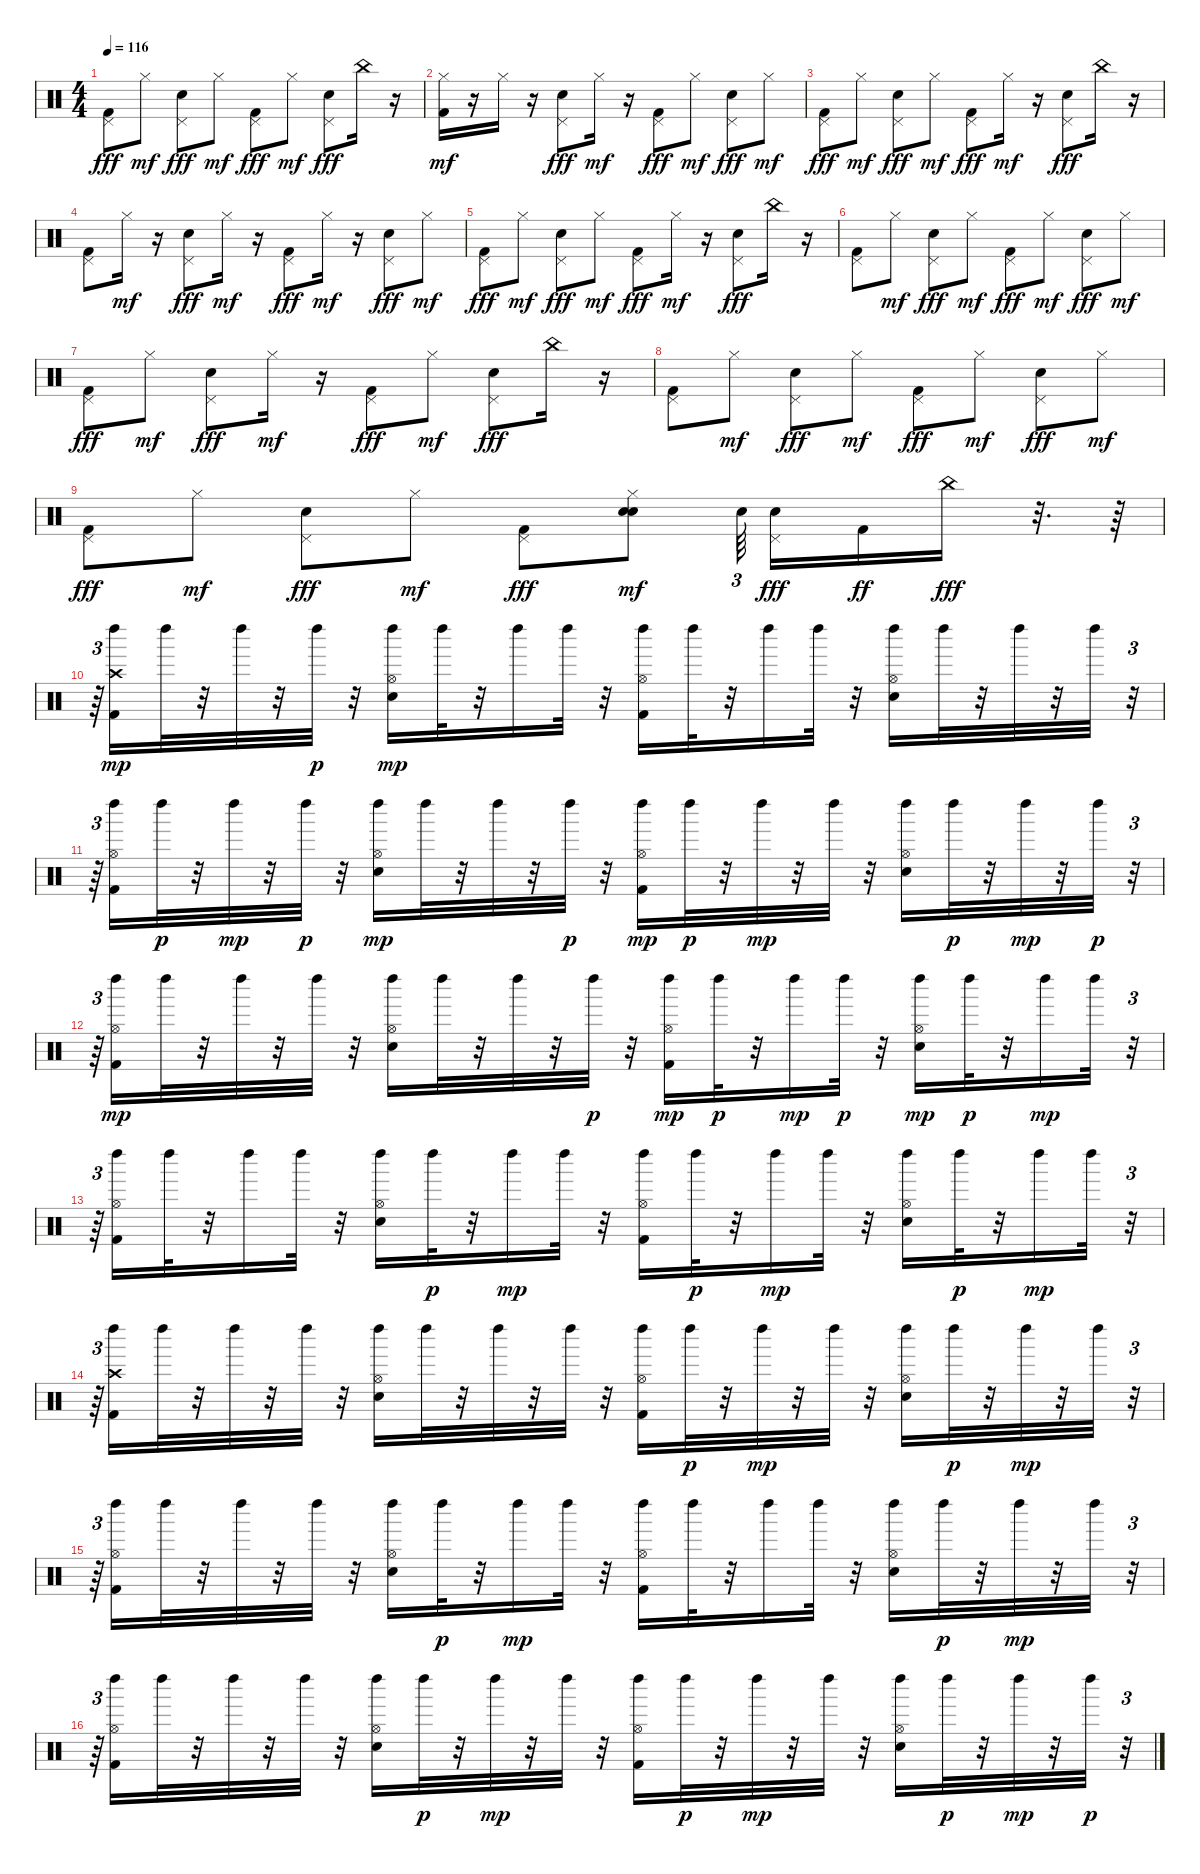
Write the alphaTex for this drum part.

\track "" {instrument percussion}
\staff {score}
\articulation defaults
\ts (4 4)
\tempo 116
\clef neutral
\ks c
("Kick (hit) 2" "Pedal Hi-Hat (hit)").8{dy fff} "Hi-Hat (closed)".8{dy mf} ("Snare (hit) 2" "Pedal Hi-Hat (hit)").8{dy fff} "Hi-Hat (closed)".8{dy mf} ("Kick (hit) 2" "Pedal Hi-Hat (hit)").8{dy fff} "Hi-Hat (closed)".8{dy mf} ("Snare (hit) 2" "Pedal Hi-Hat (hit)").8{dy fff} "China (choke)".16 r.16 |
("Kick (hit) 2" "Hi-Hat (closed)").16{dy mf} r.16 "Hi-Hat (closed)".16 r.16 ("Snare (hit) 2" "Pedal Hi-Hat (hit)").8{dy fff} "Hi-Hat (closed)".16{dy mf} r.16 ("Kick (hit) 2" "Pedal Hi-Hat (hit)").8{dy fff} "Hi-Hat (closed)".8{dy mf} ("Snare (hit) 2" "Pedal Hi-Hat (hit)").8{dy fff} "Hi-Hat (closed)".8{dy mf} |
("Kick (hit) 2" "Pedal Hi-Hat (hit)").8{dy fff} "Hi-Hat (closed)".8{dy mf} ("Snare (hit) 2" "Pedal Hi-Hat (hit)").8{dy fff} "Hi-Hat (closed)".8{dy mf} ("Kick (hit) 2" "Pedal Hi-Hat (hit)").8{dy fff} "Hi-Hat (closed)".16{dy mf} r.16 ("Snare (hit) 2" "Pedal Hi-Hat (hit)").8{dy fff} "China (choke)".16 r.16 |
("Kick (hit) 2" "Pedal Hi-Hat (hit)").8 "Hi-Hat (closed)".16{dy mf} r.16 ("Snare (hit) 2" "Pedal Hi-Hat (hit)").8{dy fff} "Hi-Hat (closed)".16{dy mf} r.16 ("Kick (hit) 2" "Pedal Hi-Hat (hit)").8{dy fff} "Hi-Hat (closed)".16{dy mf} r.16 ("Snare (hit) 2" "Pedal Hi-Hat (hit)").8{dy fff} "Hi-Hat (closed)".8{dy mf} |
("Kick (hit) 2" "Pedal Hi-Hat (hit)").8{dy fff} "Hi-Hat (closed)".8{dy mf} ("Snare (hit) 2" "Pedal Hi-Hat (hit)").8{dy fff} "Hi-Hat (closed)".8{dy mf} ("Kick (hit) 2" "Pedal Hi-Hat (hit)").8{dy fff} "Hi-Hat (closed)".16{dy mf} r.16 ("Snare (hit) 2" "Pedal Hi-Hat (hit)").8{dy fff} "China (choke)".16 r.16 |
("Kick (hit) 2" "Pedal Hi-Hat (hit)").8 "Hi-Hat (closed)".8{dy mf} ("Snare (hit) 2" "Pedal Hi-Hat (hit)").8{dy fff} "Hi-Hat (closed)".8{dy mf} ("Kick (hit) 2" "Pedal Hi-Hat (hit)").8{dy fff} "Hi-Hat (closed)".8{dy mf} ("Snare (hit) 2" "Pedal Hi-Hat (hit)").8{dy fff} "Hi-Hat (closed)".8{dy mf} |
("Kick (hit) 2" "Pedal Hi-Hat (hit)").8{dy fff} "Hi-Hat (closed)".8{dy mf} ("Snare (hit) 2" "Pedal Hi-Hat (hit)").8{dy fff} "Hi-Hat (closed)".16{dy mf} r.16 ("Kick (hit) 2" "Pedal Hi-Hat (hit)").8{dy fff} "Hi-Hat (closed)".8{dy mf} ("Snare (hit) 2" "Pedal Hi-Hat (hit)").8{dy fff} "China (choke)".16 r.16 |
("Kick (hit) 2" "Pedal Hi-Hat (hit)").8 "Hi-Hat (closed)".8{dy mf} ("Snare (hit) 2" "Pedal Hi-Hat (hit)").8{dy fff} "Hi-Hat (closed)".8{dy mf} ("Kick (hit) 2" "Pedal Hi-Hat (hit)").8{dy fff} "Hi-Hat (closed)".8{dy mf} ("Snare (hit) 2" "Pedal Hi-Hat (hit)").8{dy fff} "Hi-Hat (closed)".8{dy mf} |
("Kick (hit) 2" "Pedal Hi-Hat (hit)").8{dy fff} "Hi-Hat (closed)".8{dy mf} ("Snare (hit) 2" "Pedal Hi-Hat (hit)").8{dy fff} "Hi-Hat (closed)".8{dy mf} ("Kick (hit) 2" "Pedal Hi-Hat (hit)").8{dy fff} ("Snare (hit) 2" "Snare (hit) 2" "Hi-Hat (closed)").8{dy mf} "Snare (hit) 2".64{tu (3 2) beam splitsecondary} ("Snare (hit) 2" "Pedal Hi-Hat (hit)").16{dy fff} "Kick (hit) 2".16{dy ff} "China (choke)".16{dy fff} r.32{d} r.64 |
r.64{tu (3 2)} ("Kick (hit) 2" "Crash high (hit)" "Left Maraca (hit)").16{dy mp} "Left Maraca (hit)".32 r.32 "Left Maraca (hit)".32 r.32 "Left Maraca (hit)".32{dy p} r.32 ("Snare (hit) 2" "Hi-Hat (open)" "Left Maraca (hit)").16{dy mp} "Left Maraca (hit)".32 r.32 "Left Maraca (hit)".16 "Left Maraca (hit)".32 r.32 ("Kick (hit) 2" "Hi-Hat (open)" "Left Maraca (hit)").16 "Left Maraca (hit)".32 r.32 "Left Maraca (hit)".16 "Left Maraca (hit)".32 r.32 ("Snare (hit) 2" "Hi-Hat (open)" "Left Maraca (hit)").16 "Left Maraca (hit)".32 r.32 "Left Maraca (hit)".32 r.32 "Left Maraca (hit)".32 r.32{tu (3 2)} |
r.64{tu (3 2)} ("Kick (hit) 2" "Hi-Hat (open)" "Left Maraca (hit)").16 "Left Maraca (hit)".32{dy p} r.32 "Left Maraca (hit)".32{dy mp} r.32 "Left Maraca (hit)".32{dy p} r.32 ("Snare (hit) 2" "Hi-Hat (open)" "Left Maraca (hit)").16{dy mp} "Left Maraca (hit)".32 r.32 "Left Maraca (hit)".32 r.32 "Left Maraca (hit)".32{dy p} r.32 ("Kick (hit) 2" "Hi-Hat (open)" "Left Maraca (hit)").16{dy mp} "Left Maraca (hit)".32{dy p} r.32 "Left Maraca (hit)".32{dy mp} r.32 "Left Maraca (hit)".32 r.32 ("Snare (hit) 2" "Hi-Hat (open)" "Left Maraca (hit)").16 "Left Maraca (hit)".32{dy p} r.32 "Left Maraca (hit)".32{dy mp} r.32 "Left Maraca (hit)".32{dy p} r.32{tu (3 2)} |
r.64{tu (3 2)} ("Kick (hit) 2" "Hi-Hat (open)" "Left Maraca (hit)").16{dy mp} "Left Maraca (hit)".32 r.32 "Left Maraca (hit)".32 r.32 "Left Maraca (hit)".32 r.32 ("Snare (hit) 2" "Hi-Hat (open)" "Left Maraca (hit)").16 "Left Maraca (hit)".32 r.32 "Left Maraca (hit)".32 r.32 "Left Maraca (hit)".32{dy p} r.32 ("Kick (hit) 2" "Hi-Hat (open)" "Left Maraca (hit)").16{dy mp} "Left Maraca (hit)".32{dy p} r.32 "Left Maraca (hit)".16{dy mp} "Left Maraca (hit)".32{dy p} r.32 ("Snare (hit) 2" "Hi-Hat (open)" "Left Maraca (hit)").16{dy mp} "Left Maraca (hit)".32{dy p} r.32 "Left Maraca (hit)".16{dy mp} "Left Maraca (hit)".32 r.32{tu (3 2)} |
r.64{tu (3 2)} ("Kick (hit) 2" "Hi-Hat (open)" "Left Maraca (hit)").16 "Left Maraca (hit)".32 r.32 "Left Maraca (hit)".16 "Left Maraca (hit)".32 r.32 ("Snare (hit) 2" "Hi-Hat (open)" "Left Maraca (hit)").16 "Left Maraca (hit)".32{dy p} r.32 "Left Maraca (hit)".16{dy mp} "Left Maraca (hit)".32 r.32 ("Kick (hit) 2" "Hi-Hat (open)" "Left Maraca (hit)").16 "Left Maraca (hit)".32{dy p} r.32 "Left Maraca (hit)".16{dy mp} "Left Maraca (hit)".32 r.32 ("Snare (hit) 2" "Hi-Hat (open)" "Left Maraca (hit)").16 "Left Maraca (hit)".32{dy p} r.32 "Left Maraca (hit)".16{dy mp} "Left Maraca (hit)".32 r.32{tu (3 2)} |
r.64{tu (3 2)} ("Kick (hit) 2" "Crash high (hit)" "Left Maraca (hit)").16 "Left Maraca (hit)".32 r.32 "Left Maraca (hit)".32 r.32 "Left Maraca (hit)".32 r.32 ("Snare (hit) 2" "Hi-Hat (open)" "Left Maraca (hit)").16 "Left Maraca (hit)".32 r.32 "Left Maraca (hit)".32 r.32 "Left Maraca (hit)".32 r.32 ("Kick (hit) 2" "Hi-Hat (open)" "Left Maraca (hit)").16 "Left Maraca (hit)".32{dy p} r.32 "Left Maraca (hit)".32{dy mp} r.32 "Left Maraca (hit)".32 r.32 ("Snare (hit) 2" "Hi-Hat (open)" "Left Maraca (hit)").16 "Left Maraca (hit)".32{dy p} r.32 "Left Maraca (hit)".32{dy mp} r.32 "Left Maraca (hit)".32 r.32{tu (3 2)} |
r.64{tu (3 2)} ("Kick (hit) 2" "Hi-Hat (open)" "Left Maraca (hit)").16 "Left Maraca (hit)".32 r.32 "Left Maraca (hit)".32 r.32 "Left Maraca (hit)".32 r.32 ("Snare (hit) 2" "Hi-Hat (open)" "Left Maraca (hit)").16 "Left Maraca (hit)".32{dy p} r.32 "Left Maraca (hit)".16{dy mp} "Left Maraca (hit)".32 r.32 ("Kick (hit) 2" "Hi-Hat (open)" "Left Maraca (hit)").16 "Left Maraca (hit)".32 r.32 "Left Maraca (hit)".16 "Left Maraca (hit)".32 r.32 ("Snare (hit) 2" "Hi-Hat (open)" "Left Maraca (hit)").16 "Left Maraca (hit)".32{dy p} r.32 "Left Maraca (hit)".32{dy mp} r.32 "Left Maraca (hit)".32 r.32{tu (3 2)} |
r.64{tu (3 2)} ("Kick (hit) 2" "Hi-Hat (open)" "Left Maraca (hit)").16 "Left Maraca (hit)".32 r.32 "Left Maraca (hit)".32 r.32 "Left Maraca (hit)".32 r.32 ("Snare (hit) 2" "Hi-Hat (open)" "Left Maraca (hit)").16 "Left Maraca (hit)".32{dy p} r.32 "Left Maraca (hit)".32{dy mp} r.32 "Left Maraca (hit)".32 r.32 ("Kick (hit) 2" "Hi-Hat (open)" "Left Maraca (hit)").16 "Left Maraca (hit)".32{dy p} r.32 "Left Maraca (hit)".32{dy mp} r.32 "Left Maraca (hit)".32 r.32 ("Snare (hit) 2" "Hi-Hat (open)" "Left Maraca (hit)").16 "Left Maraca (hit)".32{dy p} r.32 "Left Maraca (hit)".32{dy mp} r.32 "Left Maraca (hit)".32{dy p} r.32{tu (3 2)}
